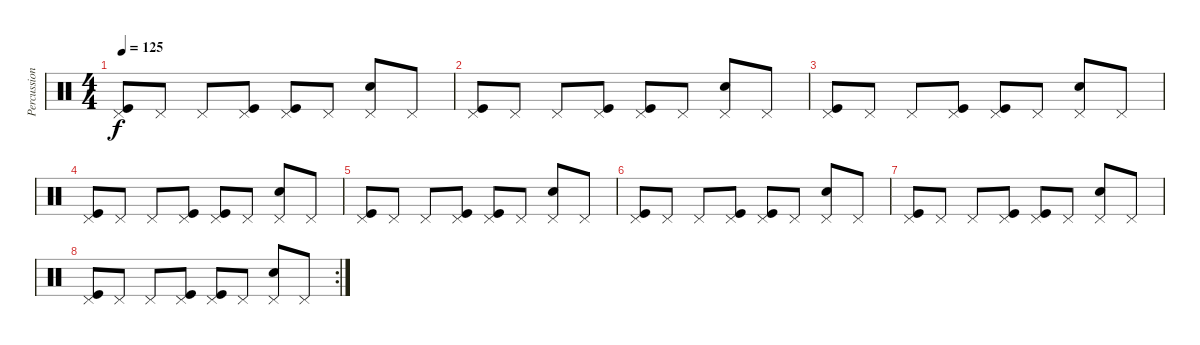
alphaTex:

\track ("Percussion" "Percussion") {instrument percussion}
\staff {score}
\articulation defaults
\ts (4 4)
\tempo 125
\clef neutral
\ks c
("Pedal Hi-Hat (hit)" "Kick (hit)").8{dy f} "Pedal Hi-Hat (hit)".8 "Pedal Hi-Hat (hit)".8 ("Pedal Hi-Hat (hit)" "Kick (hit)").8 ("Pedal Hi-Hat (hit)" "Kick (hit)").8 "Pedal Hi-Hat (hit)".8 ("Pedal Hi-Hat (hit)" "Snare (hit) 2").8 "Pedal Hi-Hat (hit)".8 |
("Pedal Hi-Hat (hit)" "Kick (hit)").8 "Pedal Hi-Hat (hit)".8 "Pedal Hi-Hat (hit)".8 ("Pedal Hi-Hat (hit)" "Kick (hit)").8 ("Pedal Hi-Hat (hit)" "Kick (hit)").8 "Pedal Hi-Hat (hit)".8 ("Pedal Hi-Hat (hit)" "Snare (hit) 2").8 "Pedal Hi-Hat (hit)".8 |
("Pedal Hi-Hat (hit)" "Kick (hit)").8 "Pedal Hi-Hat (hit)".8 "Pedal Hi-Hat (hit)".8 ("Pedal Hi-Hat (hit)" "Kick (hit)").8 ("Pedal Hi-Hat (hit)" "Kick (hit)").8 "Pedal Hi-Hat (hit)".8 ("Pedal Hi-Hat (hit)" "Snare (hit) 2").8 "Pedal Hi-Hat (hit)".8 |
("Pedal Hi-Hat (hit)" "Kick (hit)").8 "Pedal Hi-Hat (hit)".8 "Pedal Hi-Hat (hit)".8 ("Pedal Hi-Hat (hit)" "Kick (hit)").8 ("Pedal Hi-Hat (hit)" "Kick (hit)").8 "Pedal Hi-Hat (hit)".8 ("Pedal Hi-Hat (hit)" "Snare (hit) 2").8 "Pedal Hi-Hat (hit)".8 |
("Pedal Hi-Hat (hit)" "Kick (hit)").8 "Pedal Hi-Hat (hit)".8 "Pedal Hi-Hat (hit)".8 ("Pedal Hi-Hat (hit)" "Kick (hit)").8 ("Pedal Hi-Hat (hit)" "Kick (hit)").8 "Pedal Hi-Hat (hit)".8 ("Pedal Hi-Hat (hit)" "Snare (hit) 2").8 "Pedal Hi-Hat (hit)".8 |
("Pedal Hi-Hat (hit)" "Kick (hit)").8 "Pedal Hi-Hat (hit)".8 "Pedal Hi-Hat (hit)".8 ("Pedal Hi-Hat (hit)" "Kick (hit)").8 ("Pedal Hi-Hat (hit)" "Kick (hit)").8 "Pedal Hi-Hat (hit)".8 ("Pedal Hi-Hat (hit)" "Snare (hit) 2").8 "Pedal Hi-Hat (hit)".8 |
("Pedal Hi-Hat (hit)" "Kick (hit)").8 "Pedal Hi-Hat (hit)".8 "Pedal Hi-Hat (hit)".8 ("Pedal Hi-Hat (hit)" "Kick (hit)").8 ("Pedal Hi-Hat (hit)" "Kick (hit)").8 "Pedal Hi-Hat (hit)".8 ("Pedal Hi-Hat (hit)" "Snare (hit) 2").8 "Pedal Hi-Hat (hit)".8 |
\rc 2
("Pedal Hi-Hat (hit)" "Kick (hit)").8 "Pedal Hi-Hat (hit)".8 "Pedal Hi-Hat (hit)".8 ("Pedal Hi-Hat (hit)" "Kick (hit)").8 ("Pedal Hi-Hat (hit)" "Kick (hit)").8 "Pedal Hi-Hat (hit)".8 ("Pedal Hi-Hat (hit)" "Snare (hit) 2").8 "Pedal Hi-Hat (hit)".8
